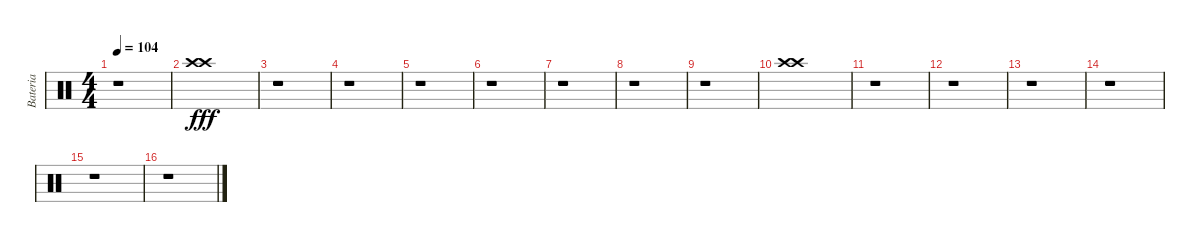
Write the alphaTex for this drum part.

\track ("Bateria" "Bateria") {instrument percussion}
\staff {score}
\articulation defaults
\ts (4 4)
\tempo 104
\clef neutral
\ks c
r.1{dy fff} |
("Crash high (hit)" "Crash high (hit)").1 |
r.1 |
r.1 |
r.1 |
r.1 |
r.1 |
r.1 |
r.1 |
("Crash high (hit)" "Crash high (hit)").1 |
r.1 |
r.1 |
r.1 |
r.1 |
r.1 |
r.1
